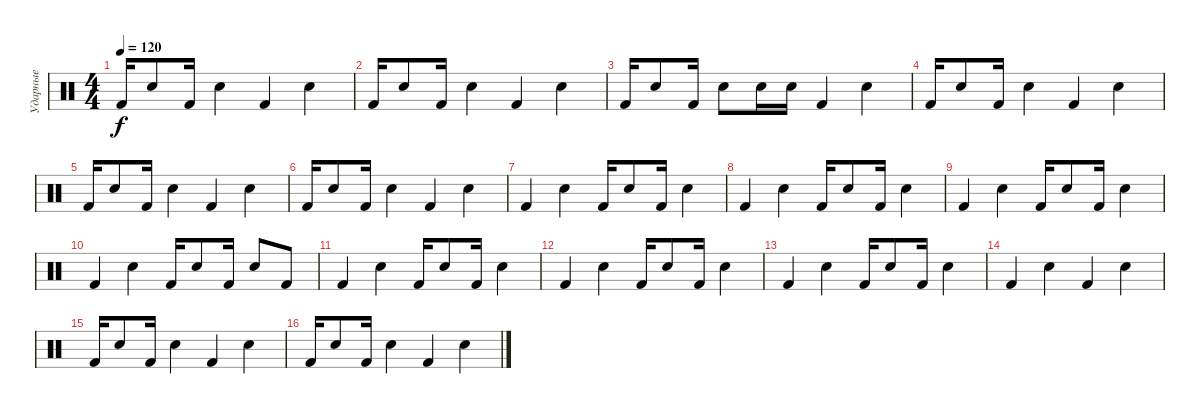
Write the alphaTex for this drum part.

\track ("Ударные" "Ударные") {instrument percussion}
\staff {score}
\articulation defaults
\ts (4 4)
\tempo 120
\clef neutral
\ks c "Kick (hit) 2".16{dy f} "Snare (hit) 2".8 "Kick (hit) 2".16 "Snare (hit) 2".4 "Kick (hit) 2".4 "Snare (hit) 2".4
|
"Kick (hit) 2".16 "Snare (hit) 2".8 "Kick (hit) 2".16 "Snare (hit) 2".4 "Kick (hit) 2".4 "Snare (hit) 2".4 |
"Kick (hit) 2".16 "Snare (hit) 2".8 "Kick (hit) 2".16 "Snare (hit) 2".8 "Snare (hit) 2".16 "Snare (hit) 2".16 "Kick (hit) 2".4 "Snare (hit) 2".4 |
"Kick (hit) 2".16 "Snare (hit) 2".8 "Kick (hit) 2".16 "Snare (hit) 2".4 "Kick (hit) 2".4 "Snare (hit) 2".4 |
"Kick (hit) 2".16 "Snare (hit) 2".8 "Kick (hit) 2".16 "Snare (hit) 2".4 "Kick (hit) 2".4 "Snare (hit) 2".4 |
"Kick (hit) 2".16 "Snare (hit) 2".8 "Kick (hit) 2".16 "Snare (hit) 2".4 "Kick (hit) 2".4 "Snare (hit) 2".4 |
"Kick (hit) 2".4 "Snare (hit) 2".4 "Kick (hit) 2".16 "Snare (hit) 2".8 "Kick (hit) 2".16 "Snare (hit) 2".4 |
"Kick (hit) 2".4 "Snare (hit) 2".4 "Kick (hit) 2".16 "Snare (hit) 2".8 "Kick (hit) 2".16 "Snare (hit) 2".4 |
"Kick (hit) 2".4 "Snare (hit) 2".4 "Kick (hit) 2".16 "Snare (hit) 2".8 "Kick (hit) 2".16 "Snare (hit) 2".4 |
"Kick (hit) 2".4 "Snare (hit) 2".4 "Kick (hit) 2".16 "Snare (hit) 2".8 "Kick (hit) 2".16 "Snare (hit) 2".8 "Kick (hit) 2".8 |
"Kick (hit) 2".4 "Snare (hit) 2".4 "Kick (hit) 2".16 "Snare (hit) 2".8 "Kick (hit) 2".16 "Snare (hit) 2".4 |
"Kick (hit) 2".4 "Snare (hit) 2".4 "Kick (hit) 2".16 "Snare (hit) 2".8 "Kick (hit) 2".16 "Snare (hit) 2".4 |
"Kick (hit) 2".4 "Snare (hit) 2".4 "Kick (hit) 2".16 "Snare (hit) 2".8 "Kick (hit) 2".16 "Snare (hit) 2".4 |
"Kick (hit) 2".4 "Snare (hit) 2".4 "Kick (hit) 2".4 "Snare (hit) 2".4 |
"Kick (hit) 2".16 "Snare (hit) 2".8 "Kick (hit) 2".16 "Snare (hit) 2".4 "Kick (hit) 2".4 "Snare (hit) 2".4 |
"Kick (hit) 2".16 "Snare (hit) 2".8 "Kick (hit) 2".16 "Snare (hit) 2".4 "Kick (hit) 2".4 "Snare (hit) 2".4
